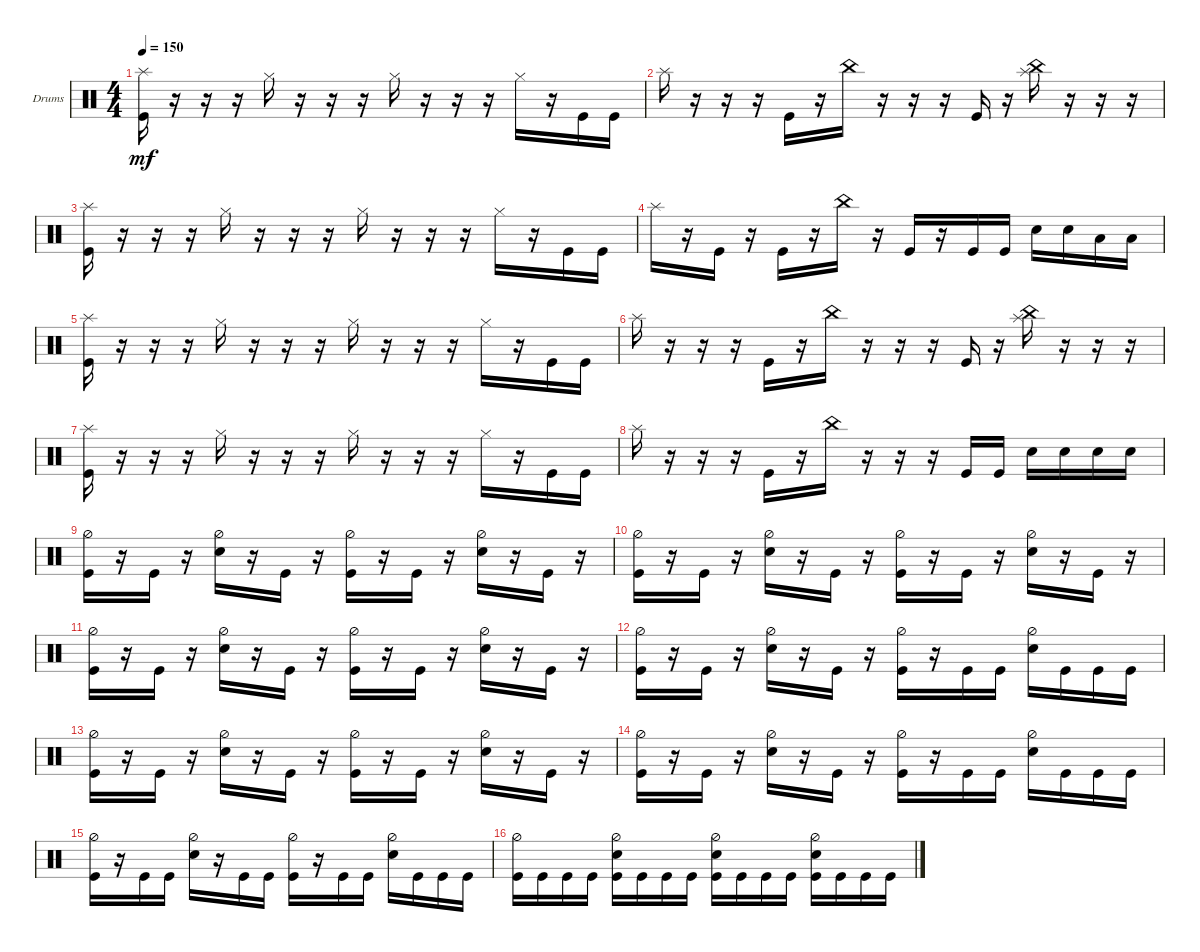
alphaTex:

\defaultSystemsLayout 4
\bracketExtendMode groupsimilarinstruments
\firstSystemTrackNameOrientation horizontal
\otherSystemsTrackNameOrientation horizontal
\track ("Drumkit" "Drums") {instrument percussion}
\staff {score}
\articulation defaults
\ts (4 4)
\tempo 150
\clef neutral
\ks c
("Kick (hit)" "Splash (hit)").16{dy mf} r.16 r.16 r.16 "Hi-Hat (closed)".16 r.16 r.16 r.16 "Hi-Hat (closed)".16 r.16 r.16 r.16 "Hi-Hat (closed)".16 r.16 "Kick (hit)".16 "Kick (hit)".16 |
"Splash (hit)".16 r.16 r.16 r.16 "Kick (hit)".16 r.16 "China (hit)".16 r.16 r.16 r.16 "Kick (hit)".16 r.16 ("Splash (hit)" "China (hit)").16 r.16 r.16 r.16 |
("Kick (hit)" "Splash (hit)").16 r.16 r.16 r.16 "Hi-Hat (closed)".16 r.16 r.16 r.16 "Hi-Hat (closed)".16 r.16 r.16 r.16 "Hi-Hat (closed)".16 r.16 "Kick (hit)".16 "Kick (hit)".16 |
"Splash (hit)".16 r.16 "Kick (hit)".16 r.16 "Kick (hit)".16 r.16 "China (hit)".16 r.16 "Kick (hit)".16 r.16 "Kick (hit)".16 "Kick (hit)".16 "Snare (hit) 2".16 "Snare (hit) 2".16 "Low Tom (hit)".16 "Low Tom (hit)".16 |
("Kick (hit)" "Splash (hit)").16 r.16 r.16 r.16 "Hi-Hat (closed)".16 r.16 r.16 r.16 "Hi-Hat (closed)".16 r.16 r.16 r.16 "Hi-Hat (closed)".16 r.16 "Kick (hit)".16 "Kick (hit)".16 |
"Splash (hit)".16 r.16 r.16 r.16 "Kick (hit)".16 r.16 "China (hit)".16 r.16 r.16 r.16 "Kick (hit)".16 r.16 ("Splash (hit)" "China (hit)").16 r.16 r.16 r.16 |
("Kick (hit)" "Splash (hit)").16 r.16 r.16 r.16 "Hi-Hat (closed)".16 r.16 r.16 r.16 "Hi-Hat (closed)".16 r.16 r.16 r.16 "Hi-Hat (closed)".16 r.16 "Kick (hit)".16 "Kick (hit)".16 |
"Splash (hit)".16 r.16 r.16 r.16 "Kick (hit)".16 r.16 "China (hit)".16 r.16 r.16 r.16 "Kick (hit)".16 "Kick (hit)".16 "Snare (hit) 2".16 "Snare (hit) 2".16 "Snare (hit) 2".16 "Snare (hit) 2".16 |
("Hi-Hat (half)" "Kick (hit)").16 r.16 "Kick (hit)".16 r.16 ("Hi-Hat (half)" "Snare (hit) 2").16 r.16 "Kick (hit)".16 r.16 ("Hi-Hat (half)" "Kick (hit)").16 r.16 "Kick (hit)".16 r.16 ("Hi-Hat (half)" "Snare (hit) 2").16 r.16 "Kick (hit)".16 r.16 |
("Hi-Hat (half)" "Kick (hit)").16 r.16 "Kick (hit)".16 r.16 ("Hi-Hat (half)" "Snare (hit) 2").16 r.16 "Kick (hit)".16 r.16 ("Hi-Hat (half)" "Kick (hit)").16 r.16 "Kick (hit)".16 r.16 ("Hi-Hat (half)" "Snare (hit) 2").16 r.16 "Kick (hit)".16 r.16 |
("Hi-Hat (half)" "Kick (hit)").16 r.16 "Kick (hit)".16 r.16 ("Hi-Hat (half)" "Snare (hit) 2").16 r.16 "Kick (hit)".16 r.16 ("Hi-Hat (half)" "Kick (hit)").16 r.16 "Kick (hit)".16 r.16 ("Hi-Hat (half)" "Snare (hit) 2").16 r.16 "Kick (hit)".16 r.16 |
("Hi-Hat (half)" "Kick (hit)").16 r.16 "Kick (hit)".16 r.16 ("Hi-Hat (half)" "Snare (hit) 2").16 r.16 "Kick (hit)".16 r.16 ("Hi-Hat (half)" "Kick (hit)").16 r.16 "Kick (hit)".16 "Kick (hit)".16 ("Hi-Hat (half)" "Snare (hit) 2").16 "Kick (hit)".16 "Kick (hit)".16 "Kick (hit)".16 |
("Hi-Hat (half)" "Kick (hit)").16 r.16 "Kick (hit)".16 r.16 ("Hi-Hat (half)" "Snare (hit) 2").16 r.16 "Kick (hit)".16 r.16 ("Hi-Hat (half)" "Kick (hit)").16 r.16 "Kick (hit)".16 r.16 ("Hi-Hat (half)" "Snare (hit) 2").16 r.16 "Kick (hit)".16 r.16 |
("Hi-Hat (half)" "Kick (hit)").16 r.16 "Kick (hit)".16 r.16 ("Hi-Hat (half)" "Snare (hit) 2").16 r.16 "Kick (hit)".16 r.16 ("Hi-Hat (half)" "Kick (hit)").16 r.16 "Kick (hit)".16 "Kick (hit)".16 ("Hi-Hat (half)" "Snare (hit) 2").16 "Kick (hit)".16 "Kick (hit)".16 "Kick (hit)".16 |
("Hi-Hat (half)" "Kick (hit)").16 r.16 "Kick (hit)".16 "Kick (hit)".16 ("Hi-Hat (half)" "Snare (hit) 2").16 r.16 "Kick (hit)".16 "Kick (hit)".16 ("Hi-Hat (half)" "Kick (hit)").16 r.16 "Kick (hit)".16 "Kick (hit)".16 ("Hi-Hat (half)" "Snare (hit) 2").16 "Kick (hit)".16 "Kick (hit)".16 "Kick (hit)".16 |
("Hi-Hat (half)" "Kick (hit)").16 "Kick (hit)".16 "Kick (hit)".16 "Kick (hit)".16 ("Hi-Hat (half)" "Snare (hit) 2" "Kick (hit)").16 "Kick (hit)".16 "Kick (hit)".16 "Kick (hit)".16 ("Hi-Hat (half)" "Kick (hit)" "Snare (hit) 2").16 "Kick (hit)".16 "Kick (hit)".16 "Kick (hit)".16 ("Hi-Hat (half)" "Snare (hit) 2" "Kick (hit)").16 "Kick (hit)".16 "Kick (hit)".16 "Kick (hit)".16
